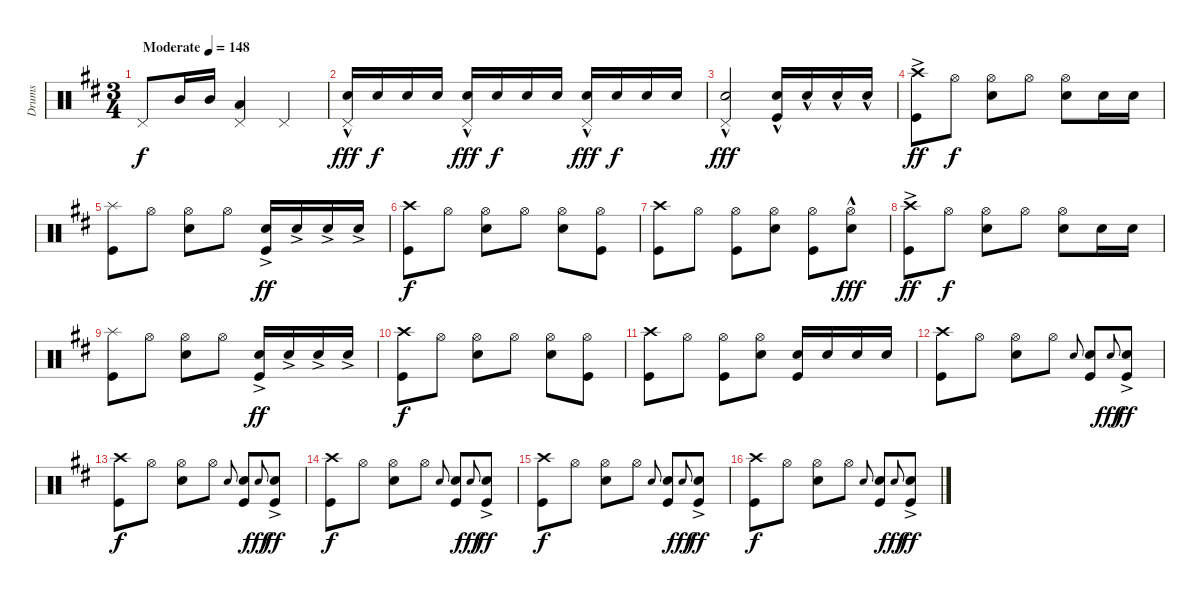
\track ("Drums" "Drums") {instrument percussion}
\staff {score}
\articulation defaults
\ts (3 4)
\tempo (148 "Moderate")
\clef neutral
\ks bminor "Pedal Hi-Hat (hit)".8{dy f} "Mid Tom (hit)".16 "Mid Tom (hit)".16
("Pedal Hi-Hat (hit)" "Low Tom (hit)").4 "Pedal Hi-Hat (hit)".4 |
("Pedal Hi-Hat (hit)" "Snare (hit) 2"{hac}).16{dy fff} "Snare (hit) 2".16{dy f} "Snare (hit) 2".16 "Snare (hit) 2".16 ("Pedal Hi-Hat (hit)" "Snare (hit) 2"{hac}).16{dy fff} "Snare (hit) 2".16{dy f} "Snare (hit) 2".16 "Snare (hit) 2".16 ("Pedal Hi-Hat (hit)" "Snare (hit) 2"{hac}).16{dy fff} "Snare (hit) 2".16{dy f} "Snare (hit) 2".16 "Snare (hit) 2".16 |
("Pedal Hi-Hat (hit)" "Snare (hit) 2"{hac}).2{dy fff} ("Snare (hit) 2"{hac} "Kick (hit)").16 "Snare (hit) 2"{hac}.16 "Snare (hit) 2"{hac}.16 "Snare (hit) 2"{hac}.16 |
("Crash high (hit)"{ac} "Kick (hit)").8{dy ff} "Hi-Hat (open)".8{dy f} ("Hi-Hat (open)" "Snare (hit) 2").8 "Hi-Hat (open)".8 ("Hi-Hat (open)" "Snare (hit) 2").8 "Snare (hit) 2".16 "Snare (hit) 2".16 |
("Splash (hit)" "Kick (hit)").8 "Hi-Hat (open)".8 ("Hi-Hat (open)" "Snare (hit) 2").8 "Hi-Hat (open)".8 ("Snare (hit) 2"{ac} "Kick (hit)").16{dy ff} "Snare (hit) 2"{ac}.16 "Snare (hit) 2"{ac}.16 "Snare (hit) 2"{ac}.16 |
("Crash high (hit)" "Kick (hit)").8{dy f} "Hi-Hat (open)".8 ("Hi-Hat (open)" "Snare (hit) 2").8 "Hi-Hat (open)".8 ("Hi-Hat (open)" "Snare (hit) 2").8 ("Hi-Hat (open)" "Kick (hit)").8 |
("Crash high (hit)" "Kick (hit)").8 "Hi-Hat (open)".8 ("Hi-Hat (open)" "Kick (hit)").8 ("Hi-Hat (open)" "Snare (hit) 2").8 ("Hi-Hat (open)" "Kick (hit)").8 ("Hi-Hat (open)"{hac} "Snare (hit) 2").8{dy fff} |
("Crash high (hit)"{ac} "Kick (hit)").8{dy ff} "Hi-Hat (open)".8{dy f} ("Hi-Hat (open)" "Snare (hit) 2").8 "Hi-Hat (open)".8 ("Hi-Hat (open)" "Snare (hit) 2").8 "Snare (hit) 2".16 "Snare (hit) 2".16 |
("Splash (hit)" "Kick (hit)").8 "Hi-Hat (open)".8 ("Hi-Hat (open)" "Snare (hit) 2").8 "Hi-Hat (open)".8 ("Snare (hit) 2"{ac} "Kick (hit)").16{dy ff} "Snare (hit) 2"{ac}.16 "Snare (hit) 2"{ac}.16 "Snare (hit) 2"{ac}.16 |
("Crash high (hit)" "Kick (hit)").8{dy f} "Hi-Hat (open)".8 ("Hi-Hat (open)" "Snare (hit) 2").8 "Hi-Hat (open)".8 ("Hi-Hat (open)" "Snare (hit) 2").8 ("Hi-Hat (open)" "Kick (hit)").8 |
("Crash high (hit)" "Kick (hit)").8 "Hi-Hat (open)".8 ("Hi-Hat (open)" "Kick (hit)").8 ("Hi-Hat (open)" "Snare (hit) 2").8 ("Snare (hit) 2" "Kick (hit)").16 "Snare (hit) 2".16 "Snare (hit) 2".16 "Snare (hit) 2".16 |
("Kick (hit)" "Crash high (hit)").8 "Hi-Hat (open)".8 ("Snare (hit) 2" "Hi-Hat (open)").8 "Hi-Hat (open)".8 "Snare (hit) 2".8{gr onbeat} ("Kick (hit)" "Snare (hit) 2").8 "Snare (hit) 2".8{gr onbeat dy fff} ("Kick (hit)" "Snare (hit) 2"{ac}).8{dy ff} |
("Kick (hit)" "Crash high (hit)").8{dy f} "Hi-Hat (open)".8 ("Snare (hit) 2" "Hi-Hat (open)").8 "Hi-Hat (open)".8 "Snare (hit) 2".8{gr onbeat} ("Kick (hit)" "Snare (hit) 2").8 "Snare (hit) 2".8{gr onbeat dy fff} ("Kick (hit)" "Snare (hit) 2"{ac}).8{dy ff} |
("Kick (hit)" "Crash high (hit)").8{dy f} "Hi-Hat (open)".8 ("Snare (hit) 2" "Hi-Hat (open)").8 "Hi-Hat (open)".8 "Snare (hit) 2".8{gr onbeat} ("Kick (hit)" "Snare (hit) 2").8 "Snare (hit) 2".8{gr onbeat dy fff} ("Kick (hit)" "Snare (hit) 2"{ac}).8{dy ff} |
("Kick (hit)" "Crash high (hit)").8{dy f} "Hi-Hat (open)".8 ("Snare (hit) 2" "Hi-Hat (open)").8 "Hi-Hat (open)".8 "Snare (hit) 2".8{gr onbeat} ("Kick (hit)" "Snare (hit) 2").8 "Snare (hit) 2".8{gr onbeat dy fff} ("Kick (hit)" "Snare (hit) 2"{ac}).8{dy ff} |
("Kick (hit)" "Crash high (hit)").8{dy f} "Hi-Hat (open)".8 ("Snare (hit) 2" "Hi-Hat (open)").8 "Hi-Hat (open)".8 "Snare (hit) 2".8{gr onbeat} ("Kick (hit)" "Snare (hit) 2").8 "Snare (hit) 2".8{gr onbeat dy fff} ("Kick (hit)" "Snare (hit) 2"{ac}).8{dy ff}
